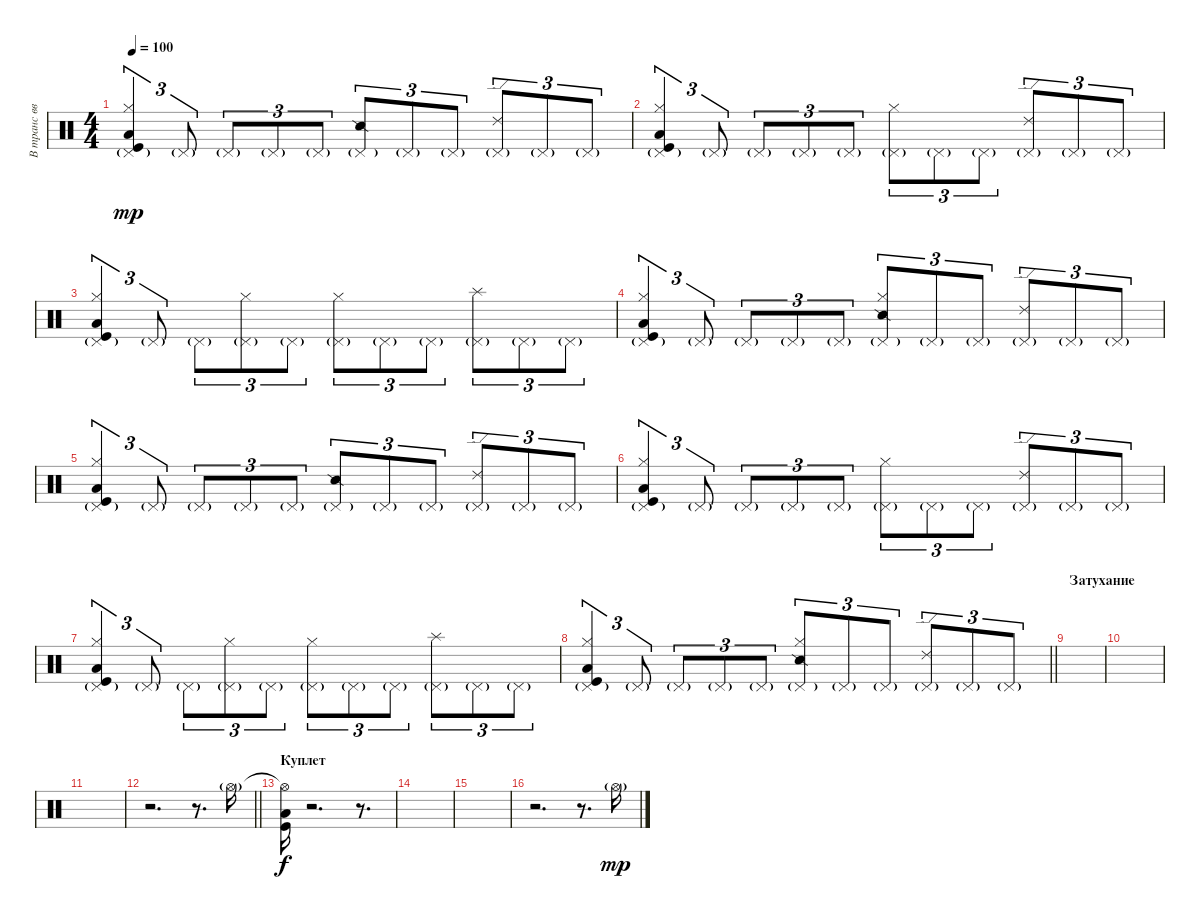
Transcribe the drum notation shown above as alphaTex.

\track ("В транс вводящие" "В транс вв") {instrument percussion}
\staff {score}
\articulation defaults
\ts (4 4)
\tempo 100
\clef neutral
\ks c
("Pedal Hi-Hat (hit)"{g} "Hi-Hat (closed)" "Low Tom (hit)" "Kick (hit)").4{tu (3 2) dy mp} "Pedal Hi-Hat (hit)"{g}.8{tu (3 2)} "Pedal Hi-Hat (hit)"{g}.8{tu (3 2)} "Pedal Hi-Hat (hit)"{g}.8{tu (3 2)} "Pedal Hi-Hat (hit)"{g}.8{tu (3 2)} ("Pedal Hi-Hat (hit)"{g} "Snare (side stick) 2").8{tu (3 2)} "Pedal Hi-Hat (hit)"{g}.8{tu (3 2)} "Pedal Hi-Hat (hit)"{g}.8{tu (3 2)} ("Pedal Hi-Hat (hit)"{g} "Ride (edge) 2").8{tu (3 2)} "Pedal Hi-Hat (hit)"{g}.8{tu (3 2)} "Pedal Hi-Hat (hit)"{g}.8{tu (3 2)} |
("Pedal Hi-Hat (hit)"{g} "Hi-Hat (closed)" "Low Tom (hit)" "Kick (hit)").4{tu (3 2)} "Pedal Hi-Hat (hit)"{g}.8{tu (3 2)} "Pedal Hi-Hat (hit)"{g}.8{tu (3 2)} "Pedal Hi-Hat (hit)"{g}.8{tu (3 2)} "Pedal Hi-Hat (hit)"{g}.8{tu (3 2)} ("Pedal Hi-Hat (hit)"{g} "Hi-Hat (closed)").8{tu (3 2)} "Pedal Hi-Hat (hit)"{g}.8{tu (3 2)} "Pedal Hi-Hat (hit)"{g}.8{tu (3 2)} ("Pedal Hi-Hat (hit)"{g} "Ride (edge) 2").8{tu (3 2)} "Pedal Hi-Hat (hit)"{g}.8{tu (3 2)} "Pedal Hi-Hat (hit)"{g}.8{tu (3 2)} |
("Pedal Hi-Hat (hit)"{g} "Hi-Hat (closed)" "Low Tom (hit)" "Kick (hit)").4{tu (3 2)} "Pedal Hi-Hat (hit)"{g}.8{tu (3 2)} "Pedal Hi-Hat (hit)"{g}.8{tu (3 2)} ("Pedal Hi-Hat (hit)"{g} "Hi-Hat (closed)").8{tu (3 2)} "Pedal Hi-Hat (hit)"{g}.8{tu (3 2)} ("Pedal Hi-Hat (hit)"{g} "Hi-Hat (closed)").8{tu (3 2)} "Pedal Hi-Hat (hit)"{g}.8{tu (3 2)} "Pedal Hi-Hat (hit)"{g}.8{tu (3 2)} ("Pedal Hi-Hat (hit)"{g} "Splash (hit)").8{tu (3 2)} "Pedal Hi-Hat (hit)"{g}.8{tu (3 2)} "Pedal Hi-Hat (hit)"{g}.8{tu (3 2)} |
("Pedal Hi-Hat (hit)"{g} "Hi-Hat (closed)" "Low Tom (hit)" "Kick (hit)").4{tu (3 2)} "Pedal Hi-Hat (hit)"{g}.8{tu (3 2)} "Pedal Hi-Hat (hit)"{g}.8{tu (3 2)} "Pedal Hi-Hat (hit)"{g}.8{tu (3 2)} "Pedal Hi-Hat (hit)"{g}.8{tu (3 2)} ("Pedal Hi-Hat (hit)"{g} "Snare (side stick) 2" "Hi-Hat (closed)").8{tu (3 2)} "Pedal Hi-Hat (hit)"{g}.8{tu (3 2)} "Pedal Hi-Hat (hit)"{g}.8{tu (3 2)} ("Pedal Hi-Hat (hit)"{g} "Ride (edge) 2").8{tu (3 2)} "Pedal Hi-Hat (hit)"{g}.8{tu (3 2)} "Pedal Hi-Hat (hit)"{g}.8{tu (3 2)} |
("Pedal Hi-Hat (hit)"{g} "Hi-Hat (closed)" "Low Tom (hit)" "Kick (hit)").4{tu (3 2)} "Pedal Hi-Hat (hit)"{g}.8{tu (3 2)} "Pedal Hi-Hat (hit)"{g}.8{tu (3 2)} "Pedal Hi-Hat (hit)"{g}.8{tu (3 2)} "Pedal Hi-Hat (hit)"{g}.8{tu (3 2)} ("Pedal Hi-Hat (hit)"{g} "Snare (side stick) 2").8{tu (3 2)} "Pedal Hi-Hat (hit)"{g}.8{tu (3 2)} "Pedal Hi-Hat (hit)"{g}.8{tu (3 2)} ("Pedal Hi-Hat (hit)"{g} "Ride (edge) 2").8{tu (3 2)} "Pedal Hi-Hat (hit)"{g}.8{tu (3 2)} "Pedal Hi-Hat (hit)"{g}.8{tu (3 2)} |
("Pedal Hi-Hat (hit)"{g} "Hi-Hat (closed)" "Low Tom (hit)" "Kick (hit)").4{tu (3 2)} "Pedal Hi-Hat (hit)"{g}.8{tu (3 2)} "Pedal Hi-Hat (hit)"{g}.8{tu (3 2)} "Pedal Hi-Hat (hit)"{g}.8{tu (3 2)} "Pedal Hi-Hat (hit)"{g}.8{tu (3 2)} ("Pedal Hi-Hat (hit)"{g} "Hi-Hat (closed)").8{tu (3 2)} "Pedal Hi-Hat (hit)"{g}.8{tu (3 2)} "Pedal Hi-Hat (hit)"{g}.8{tu (3 2)} ("Pedal Hi-Hat (hit)"{g} "Ride (edge) 2").8{tu (3 2)} "Pedal Hi-Hat (hit)"{g}.8{tu (3 2)} "Pedal Hi-Hat (hit)"{g}.8{tu (3 2)} |
("Pedal Hi-Hat (hit)"{g} "Hi-Hat (closed)" "Low Tom (hit)" "Kick (hit)").4{tu (3 2)} "Pedal Hi-Hat (hit)"{g}.8{tu (3 2)} "Pedal Hi-Hat (hit)"{g}.8{tu (3 2)} ("Pedal Hi-Hat (hit)"{g} "Hi-Hat (closed)").8{tu (3 2)} "Pedal Hi-Hat (hit)"{g}.8{tu (3 2)} ("Pedal Hi-Hat (hit)"{g} "Hi-Hat (closed)").8{tu (3 2)} "Pedal Hi-Hat (hit)"{g}.8{tu (3 2)} "Pedal Hi-Hat (hit)"{g}.8{tu (3 2)} ("Pedal Hi-Hat (hit)"{g} "Splash (hit)").8{tu (3 2)} "Pedal Hi-Hat (hit)"{g}.8{tu (3 2)} "Pedal Hi-Hat (hit)"{g}.8{tu (3 2)} |
\barLineRight lightlight
("Pedal Hi-Hat (hit)"{g} "Hi-Hat (closed)" "Low Tom (hit)" "Kick (hit)").4{tu (3 2)} "Pedal Hi-Hat (hit)"{g}.8{tu (3 2)} "Pedal Hi-Hat (hit)"{g}.8{tu (3 2)} "Pedal Hi-Hat (hit)"{g}.8{tu (3 2)} "Pedal Hi-Hat (hit)"{g}.8{tu (3 2)} ("Pedal Hi-Hat (hit)"{g} "Snare (side stick) 2" "Hi-Hat (closed)").8{tu (3 2)} "Pedal Hi-Hat (hit)"{g}.8{tu (3 2)} "Pedal Hi-Hat (hit)"{g}.8{tu (3 2)} ("Pedal Hi-Hat (hit)"{g} "Ride (edge) 2").8{tu (3 2)} "Pedal Hi-Hat (hit)"{g}.8{tu (3 2)} "Pedal Hi-Hat (hit)"{g}.8{tu (3 2)} |
\section ("" "Затухание")
|
|
|
\barLineRight lightlight
r.2{d} r.8{d} "Hi-Hat (open)"{g}.16 |
\section ("" "Куплет")
("Hi-Hat (open)"{t} "Low Tom (hit)" "Kick (hit)").16{dy f} r.2{d} r.8{d} |
|
|
r.2{d} r.8{d} "Hi-Hat (open)"{g}.16{dy mp}
